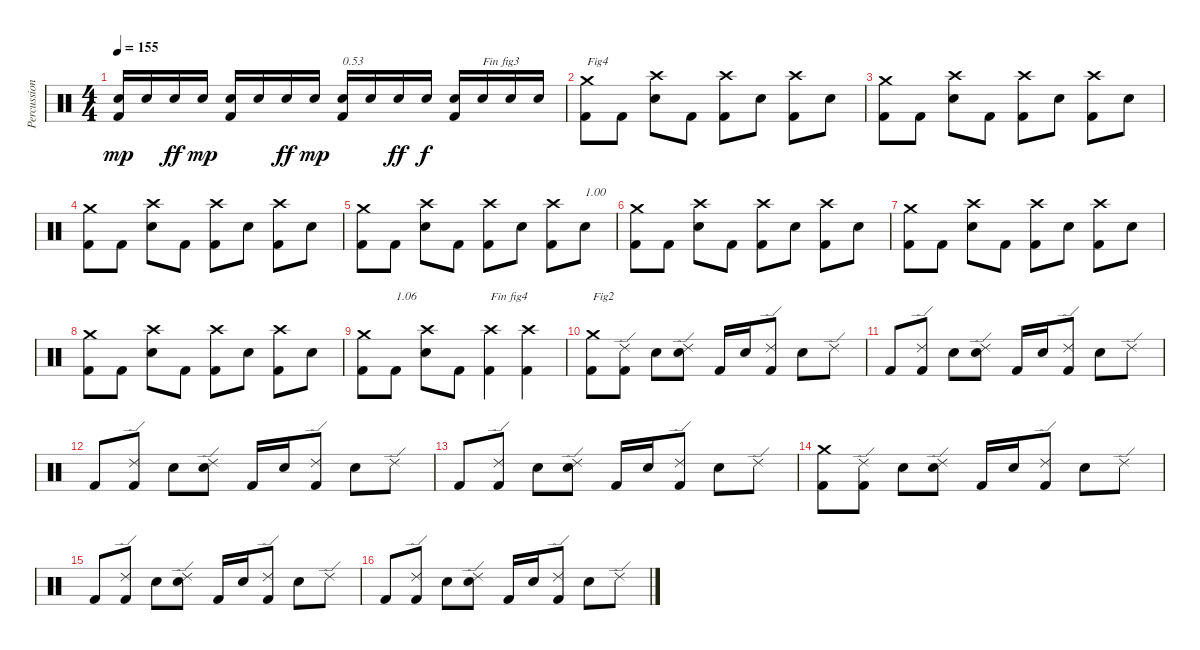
\track ("Percussions" "Percussion") {instrument percussion}
\staff {score}
\articulation defaults
\ts (4 4)
\tempo 155
\clef neutral
\ks c
("Kick (hit) 2" "Electric Snare (hit)").16{dy mp} "Electric Snare (hit)".16 "Electric Snare (hit)".16{dy ff} "Electric Snare (hit)".16{dy mp} ("Kick (hit) 2" "Electric Snare (hit)").16 "Electric Snare (hit)".16 "Electric Snare (hit)".16{dy ff} "Electric Snare (hit)".16{dy mp} ("Kick (hit) 2" "Electric Snare (hit)").16{txt "0.53"} "Electric Snare (hit)".16 "Electric Snare (hit)".16{dy ff} "Electric Snare (hit)".16{dy f} ("Kick (hit) 2" "Electric Snare (hit)").16 "Electric Snare (hit)".16{txt "Fin fig3"} "Electric Snare (hit)".16 "Electric Snare (hit)".16 |
("Kick (hit) 2" "Crash medium (hit)").8{txt "Fig4"} "Kick (hit) 2".8 ("Electric Snare (hit)" "Crash high (hit)").8 "Kick (hit) 2".8 ("Kick (hit) 2" "Crash high (hit)").8 "Electric Snare (hit)".8 ("Kick (hit) 2" "Crash high (hit)").8 "Electric Snare (hit)".8 |
("Kick (hit) 2" "Crash medium (hit)").8 "Kick (hit) 2".8 ("Electric Snare (hit)" "Crash high (hit)").8 "Kick (hit) 2".8 ("Kick (hit) 2" "Crash high (hit)").8 "Electric Snare (hit)".8 ("Kick (hit) 2" "Crash high (hit)").8 "Electric Snare (hit)".8 |
("Kick (hit) 2" "Crash medium (hit)").8 "Kick (hit) 2".8 ("Electric Snare (hit)" "Crash high (hit)").8 "Kick (hit) 2".8 ("Kick (hit) 2" "Crash high (hit)").8 "Electric Snare (hit)".8 ("Kick (hit) 2" "Crash high (hit)").8 "Electric Snare (hit)".8 |
("Kick (hit) 2" "Crash medium (hit)").8 "Kick (hit) 2".8 ("Electric Snare (hit)" "Crash high (hit)").8 "Kick (hit) 2".8 ("Kick (hit) 2" "Crash high (hit)").8 "Electric Snare (hit)".8 ("Kick (hit) 2" "Crash high (hit)").8 "Electric Snare (hit)".8{txt "1.00"} |
("Kick (hit) 2" "Crash medium (hit)").8 "Kick (hit) 2".8 ("Electric Snare (hit)" "Crash high (hit)").8 "Kick (hit) 2".8 ("Kick (hit) 2" "Crash high (hit)").8 "Electric Snare (hit)".8 ("Kick (hit) 2" "Crash high (hit)").8 "Electric Snare (hit)".8 |
("Kick (hit) 2" "Crash medium (hit)").8 "Kick (hit) 2".8 ("Electric Snare (hit)" "Crash high (hit)").8 "Kick (hit) 2".8 ("Kick (hit) 2" "Crash high (hit)").8 "Electric Snare (hit)".8 ("Kick (hit) 2" "Crash high (hit)").8 "Electric Snare (hit)".8 |
("Kick (hit) 2" "Crash medium (hit)").8 "Kick (hit) 2".8 ("Electric Snare (hit)" "Crash high (hit)").8 "Kick (hit) 2".8 ("Kick (hit) 2" "Crash high (hit)").8 "Electric Snare (hit)".8 ("Kick (hit) 2" "Crash high (hit)").8 "Electric Snare (hit)".8 |
("Kick (hit) 2" "Crash medium (hit)").8 "Kick (hit) 2".8{txt "1.06"} ("Electric Snare (hit)" "Crash high (hit)").8 "Kick (hit) 2".8 ("Kick (hit) 2" "Crash high (hit)").4{txt "Fin fig4"} ("Kick (hit) 2" "Crash high (hit)").4 |
("Kick (hit) 2" "Crash medium (hit)").8{txt "Fig2"} ("Kick (hit) 2" "Ride (edge) 2").8 "Electric Snare (hit)".8 ("Electric Snare (hit)" "Ride (edge) 2").8 "Kick (hit) 2".16 "Electric Snare (hit)".16 ("Kick (hit) 2" "Ride (edge) 2").8 "Electric Snare (hit)".8 "Ride (edge) 2".8 |
"Kick (hit) 2".8 ("Kick (hit) 2" "Ride (edge) 2").8 "Electric Snare (hit)".8 ("Electric Snare (hit)" "Ride (edge) 2").8 "Kick (hit) 2".16 "Electric Snare (hit)".16 ("Kick (hit) 2" "Ride (edge) 2").8 "Electric Snare (hit)".8 "Ride (edge) 2".8 |
"Kick (hit) 2".8 ("Kick (hit) 2" "Ride (edge) 2").8 "Electric Snare (hit)".8 ("Electric Snare (hit)" "Ride (edge) 2").8 "Kick (hit) 2".16 "Electric Snare (hit)".16 ("Kick (hit) 2" "Ride (edge) 2").8 "Electric Snare (hit)".8 "Ride (edge) 2".8 |
"Kick (hit) 2".8 ("Kick (hit) 2" "Ride (edge) 2").8 "Electric Snare (hit)".8 ("Electric Snare (hit)" "Ride (edge) 2").8 "Kick (hit) 2".16 "Electric Snare (hit)".16 ("Kick (hit) 2" "Ride (edge) 2").8 "Electric Snare (hit)".8 "Ride (edge) 2".8 |
("Kick (hit) 2" "Crash medium (hit)").8 ("Kick (hit) 2" "Ride (edge) 2").8 "Electric Snare (hit)".8 ("Electric Snare (hit)" "Ride (edge) 2").8 "Kick (hit) 2".16 "Electric Snare (hit)".16 ("Kick (hit) 2" "Ride (edge) 2").8 "Electric Snare (hit)".8 "Ride (edge) 2".8 |
"Kick (hit) 2".8 ("Kick (hit) 2" "Ride (edge) 2").8 "Electric Snare (hit)".8 ("Electric Snare (hit)" "Ride (edge) 2").8 "Kick (hit) 2".16 "Electric Snare (hit)".16 ("Kick (hit) 2" "Ride (edge) 2").8 "Electric Snare (hit)".8 "Ride (edge) 2".8 |
"Kick (hit) 2".8 ("Kick (hit) 2" "Ride (edge) 2").8 "Electric Snare (hit)".8 ("Electric Snare (hit)" "Ride (edge) 2").8 "Kick (hit) 2".16 "Electric Snare (hit)".16 ("Kick (hit) 2" "Ride (edge) 2").8 "Electric Snare (hit)".8 "Ride (edge) 2".8
